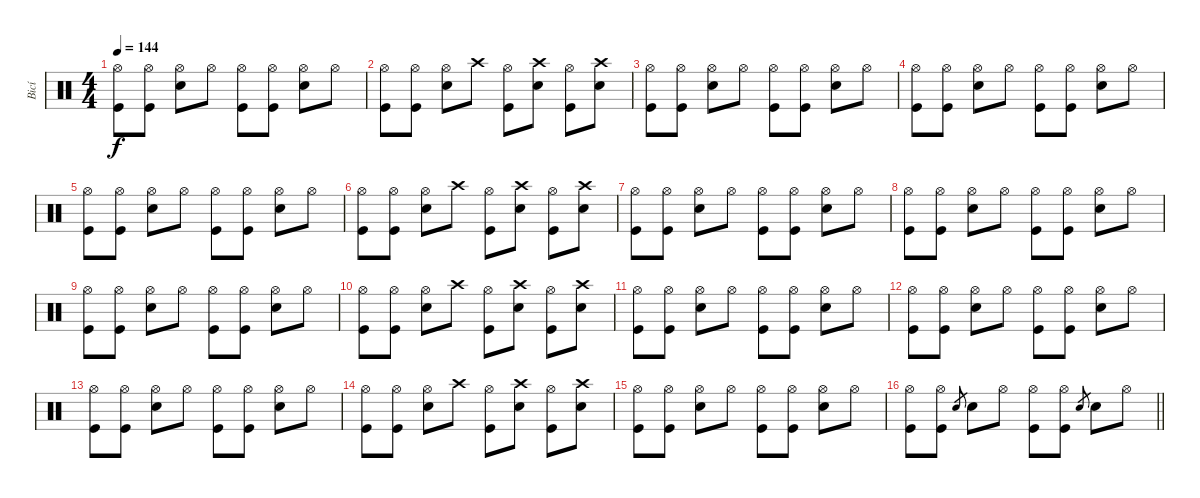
\track ("Bicí" "Bicí") {instrument percussion}
\staff
\articulation defaults
\ts (4 4)
\tempo 144
\clef neutral
\ks c
("Hi-Hat (open)" "Kick (hit)").8{dy f} ("Hi-Hat (open)" "Kick (hit)").8 ("Hi-Hat (open)" "Electric Snare (hit)").8 "Hi-Hat (open)".8 ("Hi-Hat (open)" "Kick (hit)").8 ("Hi-Hat (open)" "Kick (hit)").8 ("Hi-Hat (open)" "Electric Snare (hit)").8 "Hi-Hat (open)".8 |
("Hi-Hat (open)" "Kick (hit)").8 ("Hi-Hat (open)" "Kick (hit)").8 ("Hi-Hat (open)" "Electric Snare (hit)").8 "Crash high (hit)".8 ("Hi-Hat (open)" "Kick (hit)").8 ("Crash high (hit)" "Electric Snare (hit)").8 ("Hi-Hat (open)" "Kick (hit)").8 ("Crash high (hit)" "Electric Snare (hit)").8 |
("Hi-Hat (open)" "Kick (hit)").8 ("Hi-Hat (open)" "Kick (hit)").8 ("Hi-Hat (open)" "Electric Snare (hit)").8 "Hi-Hat (open)".8 ("Hi-Hat (open)" "Kick (hit)").8 ("Hi-Hat (open)" "Kick (hit)").8 ("Hi-Hat (open)" "Electric Snare (hit)").8 "Hi-Hat (open)".8 |
("Hi-Hat (open)" "Kick (hit)").8 ("Hi-Hat (open)" "Kick (hit)").8 ("Hi-Hat (open)" "Electric Snare (hit)").8 "Hi-Hat (open)".8 ("Hi-Hat (open)" "Kick (hit)").8 ("Hi-Hat (open)" "Kick (hit)").8 ("Hi-Hat (open)" "Electric Snare (hit)").8 "Hi-Hat (open)".8 |
("Hi-Hat (open)" "Kick (hit)").8 ("Hi-Hat (open)" "Kick (hit)").8 ("Hi-Hat (open)" "Electric Snare (hit)").8 "Hi-Hat (open)".8 ("Hi-Hat (open)" "Kick (hit)").8 ("Hi-Hat (open)" "Kick (hit)").8 ("Hi-Hat (open)" "Electric Snare (hit)").8 "Hi-Hat (open)".8 |
("Hi-Hat (open)" "Kick (hit)").8 ("Hi-Hat (open)" "Kick (hit)").8 ("Hi-Hat (open)" "Electric Snare (hit)").8 "Crash high (hit)".8 ("Hi-Hat (open)" "Kick (hit)").8 ("Crash high (hit)" "Electric Snare (hit)").8 ("Hi-Hat (open)" "Kick (hit)").8 ("Crash high (hit)" "Electric Snare (hit)").8 |
("Hi-Hat (open)" "Kick (hit)").8 ("Hi-Hat (open)" "Kick (hit)").8 ("Hi-Hat (open)" "Electric Snare (hit)").8 "Hi-Hat (open)".8 ("Hi-Hat (open)" "Kick (hit)").8 ("Hi-Hat (open)" "Kick (hit)").8 ("Hi-Hat (open)" "Electric Snare (hit)").8 "Hi-Hat (open)".8 |
("Hi-Hat (open)" "Kick (hit)").8 ("Hi-Hat (open)" "Kick (hit)").8 ("Hi-Hat (open)" "Electric Snare (hit)").8 "Hi-Hat (open)".8 ("Hi-Hat (open)" "Kick (hit)").8 ("Hi-Hat (open)" "Kick (hit)").8 ("Hi-Hat (open)" "Electric Snare (hit)").8 "Hi-Hat (open)".8 |
("Hi-Hat (open)" "Kick (hit)").8 ("Hi-Hat (open)" "Kick (hit)").8 ("Hi-Hat (open)" "Electric Snare (hit)").8 "Hi-Hat (open)".8 ("Hi-Hat (open)" "Kick (hit)").8 ("Hi-Hat (open)" "Kick (hit)").8 ("Hi-Hat (open)" "Electric Snare (hit)").8 "Hi-Hat (open)".8 |
("Hi-Hat (open)" "Kick (hit)").8 ("Hi-Hat (open)" "Kick (hit)").8 ("Hi-Hat (open)" "Electric Snare (hit)").8 "Crash high (hit)".8 ("Hi-Hat (open)" "Kick (hit)").8 ("Crash high (hit)" "Electric Snare (hit)").8 ("Hi-Hat (open)" "Kick (hit)").8 ("Crash high (hit)" "Electric Snare (hit)").8 |
("Hi-Hat (open)" "Kick (hit)").8 ("Hi-Hat (open)" "Kick (hit)").8 ("Hi-Hat (open)" "Electric Snare (hit)").8 "Hi-Hat (open)".8 ("Hi-Hat (open)" "Kick (hit)").8 ("Hi-Hat (open)" "Kick (hit)").8 ("Hi-Hat (open)" "Electric Snare (hit)").8 "Hi-Hat (open)".8 |
("Hi-Hat (open)" "Kick (hit)").8 ("Hi-Hat (open)" "Kick (hit)").8 ("Hi-Hat (open)" "Electric Snare (hit)").8 "Hi-Hat (open)".8 ("Hi-Hat (open)" "Kick (hit)").8 ("Hi-Hat (open)" "Kick (hit)").8 ("Hi-Hat (open)" "Electric Snare (hit)").8 "Hi-Hat (open)".8 |
("Hi-Hat (open)" "Kick (hit)").8 ("Hi-Hat (open)" "Kick (hit)").8 ("Hi-Hat (open)" "Electric Snare (hit)").8 "Hi-Hat (open)".8 ("Hi-Hat (open)" "Kick (hit)").8 ("Hi-Hat (open)" "Kick (hit)").8 ("Hi-Hat (open)" "Electric Snare (hit)").8 "Hi-Hat (open)".8 |
("Hi-Hat (open)" "Kick (hit)").8 ("Hi-Hat (open)" "Kick (hit)").8 ("Hi-Hat (open)" "Electric Snare (hit)").8 "Crash high (hit)".8 ("Hi-Hat (open)" "Kick (hit)").8 ("Crash high (hit)" "Electric Snare (hit)").8 ("Hi-Hat (open)" "Kick (hit)").8 ("Crash high (hit)" "Electric Snare (hit)").8 |
("Hi-Hat (open)" "Kick (hit)").8 ("Hi-Hat (open)" "Kick (hit)").8 ("Hi-Hat (open)" "Electric Snare (hit)").8 "Hi-Hat (open)".8 ("Hi-Hat (open)" "Kick (hit)").8 ("Hi-Hat (open)" "Kick (hit)").8 ("Hi-Hat (open)" "Electric Snare (hit)").8 "Hi-Hat (open)".8 |
\barLineRight lightlight
("Hi-Hat (open)" "Kick (hit)").8 ("Hi-Hat (open)" "Kick (hit)").8 "Electric Snare (hit)".8{gr} "Electric Snare (hit)".8 "Hi-Hat (open)".8 ("Hi-Hat (open)" "Kick (hit)").8 ("Hi-Hat (open)" "Kick (hit)").8 "Electric Snare (hit)".8{gr} "Electric Snare (hit)".8 "Hi-Hat (open)".8
